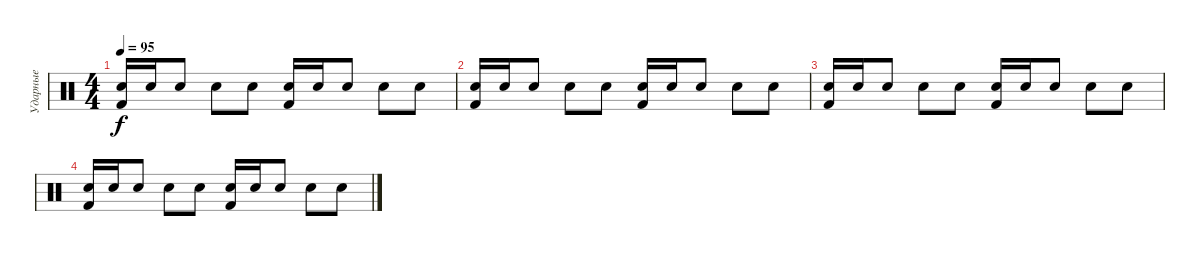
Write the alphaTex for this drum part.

\track ("Ударные" "Ударные") {instrument percussion}
\staff {score}
\articulation defaults
\ts (4 4)
\tempo 95
\clef neutral
\ks c
("Snare (hit) 2" "Kick (hit) 2").16{dy f} "Snare (hit) 2".16 "Snare (hit) 2".8 "Snare (hit) 2".8 "Snare (hit) 2".8 ("Snare (hit) 2" "Kick (hit) 2").16 "Snare (hit) 2".16 "Snare (hit) 2".8 "Snare (hit) 2".8 "Snare (hit)"{x}.8 |
("Snare (hit) 2" "Kick (hit) 2").16 "Snare (hit) 2".16 "Snare (hit) 2".8 "Snare (hit) 2".8 "Snare (hit) 2".8 ("Snare (hit) 2" "Kick (hit) 2").16 "Snare (hit) 2".16 "Snare (hit) 2".8 "Snare (hit) 2".8 "Snare (hit)"{x}.8 |
("Snare (hit) 2" "Kick (hit) 2").16 "Snare (hit) 2".16 "Snare (hit) 2".8 "Snare (hit) 2".8 "Snare (hit) 2".8 ("Snare (hit) 2" "Kick (hit) 2").16 "Snare (hit) 2".16 "Snare (hit) 2".8 "Snare (hit) 2".8 "Snare (hit)"{x}.8 |
("Snare (hit) 2" "Kick (hit) 2").16 "Snare (hit) 2".16 "Snare (hit) 2".8 "Snare (hit) 2".8 "Snare (hit) 2".8 ("Snare (hit) 2" "Kick (hit) 2").16 "Snare (hit) 2".16 "Snare (hit) 2".8 "Snare (hit) 2".8 "Snare (hit)"{x}.8
